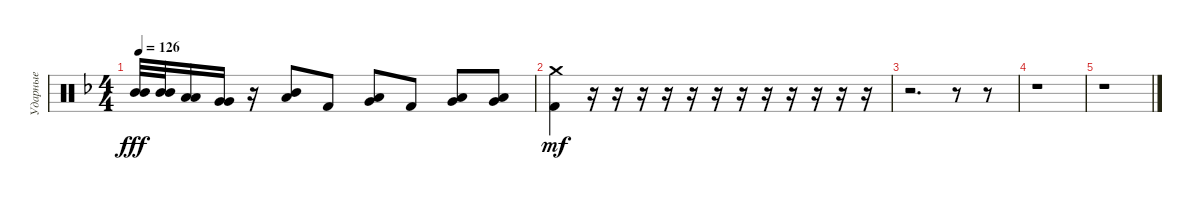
\track ("Ударные" "Ударные") {instrument percussion}
\staff {score}
\articulation defaults
\ts (4 4)
\tempo 126
\clef neutral
\ks f
("Mid Tom (hit)" "Mid Tom (hit)").32{dy fff} ("Mid Tom (hit)" "Mid Tom (hit)").32 ("Low Tom (hit)" "Low Tom (hit)").16 ("Very Low Tom (hit)" "Very Low Tom (hit)").16 r.16 ("Mid Tom (hit)" "Low Tom (hit)").8 "Kick (hit) 2".8 ("Low Tom (hit)" "Very Low Tom (hit)").8 "Kick (hit) 2".8 ("Very Low Tom (hit)" "Low Floor Tom (hit)").8 ("Very Low Tom (hit)" "Low Floor Tom (hit)").8 |
("Kick (hit) 2" "Crash medium (hit)").4{dy mf} r.16 r.16 r.16 r.16 r.16 r.16 r.16 r.16 r.16 r.16 r.16 r.16 |
r.2{d} r.8 r.8 |
r.1 |
r.1
